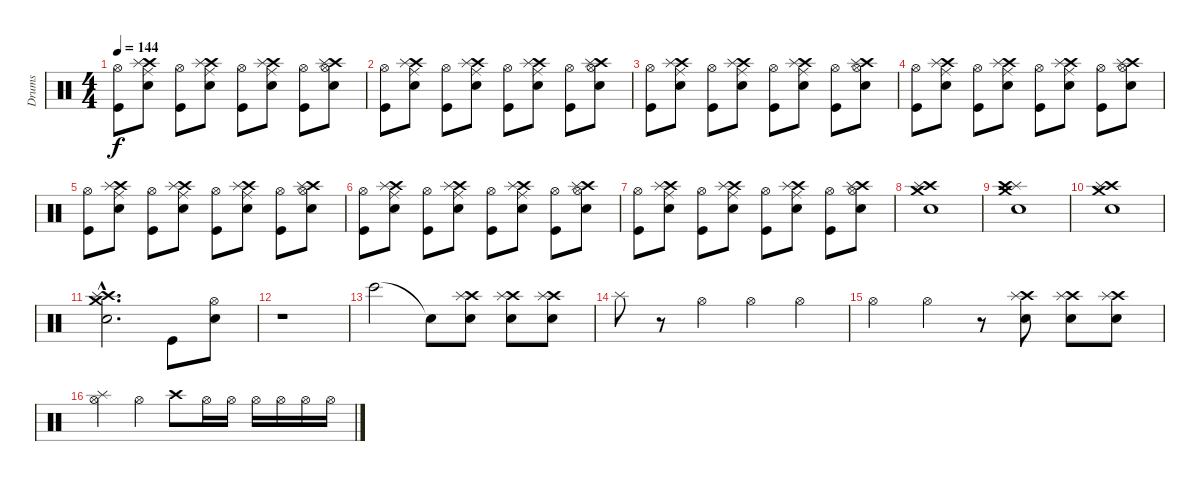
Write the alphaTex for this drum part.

\track ("Drums" "Drums") {instrument percussion}
\staff {score}
\articulation defaults
\ts (4 4)
\tempo 144
\clef neutral
\ks c
("Kick (hit)" "Hi-Hat (open)").8{dy f} ("Snare (hit) 2" "Ride (middle)" "Crash high (hit)" "Splash (hit)").8 ("Kick (hit)" "Hi-Hat (open)").8 ("Snare (hit) 2" "Ride (middle)" "Crash high (hit)" "Splash (hit)").8 ("Kick (hit)" "Hi-Hat (open)").8 ("Snare (hit) 2" "Ride (middle)" "Crash high (hit)" "Splash (hit)").8 ("Kick (hit)" "Hi-Hat (open)").8 ("Snare (hit) 2" "Hi-Hat (open)" "Crash high (hit)" "Splash (hit)").8 |
("Kick (hit)" "Hi-Hat (open)").8 ("Snare (hit) 2" "Ride (middle)" "Crash high (hit)" "Splash (hit)").8 ("Kick (hit)" "Hi-Hat (open)").8 ("Snare (hit) 2" "Ride (middle)" "Crash high (hit)" "Splash (hit)").8 ("Kick (hit)" "Hi-Hat (open)").8 ("Snare (hit) 2" "Ride (middle)" "Crash high (hit)" "Splash (hit)").8 ("Kick (hit)" "Hi-Hat (open)").8 ("Snare (hit) 2" "Hi-Hat (open)" "Crash high (hit)" "Splash (hit)").8 |
("Kick (hit)" "Hi-Hat (open)").8 ("Snare (hit) 2" "Ride (middle)" "Crash high (hit)" "Splash (hit)").8 ("Kick (hit)" "Hi-Hat (open)").8 ("Snare (hit) 2" "Ride (middle)" "Crash high (hit)" "Splash (hit)").8 ("Kick (hit)" "Hi-Hat (open)").8 ("Snare (hit) 2" "Ride (middle)" "Crash high (hit)" "Splash (hit)").8 ("Kick (hit)" "Hi-Hat (open)").8 ("Snare (hit) 2" "Hi-Hat (open)" "Crash high (hit)" "Splash (hit)").8 |
("Kick (hit)" "Hi-Hat (open)").8 ("Snare (hit) 2" "Ride (middle)" "Crash high (hit)" "Splash (hit)").8 ("Kick (hit)" "Hi-Hat (open)").8 ("Snare (hit) 2" "Ride (middle)" "Crash high (hit)" "Splash (hit)").8 ("Kick (hit)" "Hi-Hat (open)").8 ("Snare (hit) 2" "Ride (middle)" "Crash high (hit)" "Splash (hit)").8 ("Kick (hit)" "Hi-Hat (open)").8 ("Snare (hit) 2" "Hi-Hat (open)" "Crash high (hit)" "Splash (hit)").8 |
("Kick (hit)" "Hi-Hat (open)").8 ("Snare (hit) 2" "Ride (middle)" "Crash high (hit)" "Splash (hit)").8 ("Kick (hit)" "Hi-Hat (open)").8 ("Snare (hit) 2" "Ride (middle)" "Crash high (hit)" "Splash (hit)").8 ("Kick (hit)" "Hi-Hat (open)").8 ("Snare (hit) 2" "Ride (middle)" "Crash high (hit)" "Splash (hit)").8 ("Kick (hit)" "Hi-Hat (open)").8 ("Snare (hit) 2" "Hi-Hat (open)" "Crash high (hit)" "Splash (hit)").8 |
("Kick (hit)" "Hi-Hat (open)").8 ("Snare (hit) 2" "Ride (middle)" "Crash high (hit)" "Splash (hit)").8 ("Kick (hit)" "Hi-Hat (open)").8 ("Snare (hit) 2" "Ride (middle)" "Crash high (hit)" "Splash (hit)").8 ("Kick (hit)" "Hi-Hat (open)").8 ("Snare (hit) 2" "Ride (middle)" "Crash high (hit)" "Splash (hit)").8 ("Kick (hit)" "Hi-Hat (open)").8 ("Snare (hit) 2" "Hi-Hat (open)" "Crash high (hit)" "Splash (hit)").8 |
("Kick (hit)" "Hi-Hat (open)").8 ("Snare (hit) 2" "Ride (middle)" "Crash high (hit)" "Splash (hit)").8 ("Kick (hit)" "Hi-Hat (open)").8 ("Snare (hit) 2" "Ride (middle)" "Crash high (hit)" "Splash (hit)").8 ("Kick (hit)" "Hi-Hat (open)").8 ("Snare (hit) 2" "Ride (middle)" "Crash high (hit)" "Splash (hit)").8 ("Kick (hit)" "Hi-Hat (open)").8 ("Snare (hit) 2" "Hi-Hat (open)" "Crash high (hit)" "Splash (hit)").8 |
("Crash high (hit)" "Splash (hit)" "Crash medium (hit)" "Snare (hit) 2").1 |
("Splash (hit)" "Crash medium (hit)" "Crash high (hit)" "Snare (hit) 2").1 |
("Crash high (hit)" "Splash (hit)" "Crash medium (hit)" "Snare (hit) 2").1 |
("Crash high (hit)"{hac} "Splash (hit)"{hac} "Crash medium (hit)"{hac} "Snare (hit) 2"{hac}).2{d} "Kick (hit)".8 ("Snare (hit) 2" "Hi-Hat (open)").8 |
r.1 |
"Bongo High (hit)".2 "Snare (hit)"{t}.8 ("Snare (hit) 2" "Crash high (hit)" "Splash (hit)").8 ("Snare (hit) 2" "Crash high (hit)" "Splash (hit)").8 ("Snare (hit) 2" "Crash high (hit)" "Splash (hit)").8 |
"Splash (hit)".8 r.8 "Hi-Hat (open)".4 "Hi-Hat (open)".4 "Hi-Hat (open)".4 |
"Hi-Hat (open)".4 "Hi-Hat (open)".4 r.8 ("Snare (hit) 2" "Crash high (hit)" "Splash (hit)").8 ("Snare (hit) 2" "Crash high (hit)" "Splash (hit)").8 ("Snare (hit) 2" "Crash high (hit)" "Splash (hit)").8 |
("Splash (hit)" "Hi-Hat (open)").4 "Hi-Hat (open)".4 "Crash high (hit)".8 "Hi-Hat (open)".16 "Hi-Hat (open)".16 "Hi-Hat (open)".16 "Hi-Hat (open)".16 "Hi-Hat (open)".16 "Hi-Hat (open)".16
